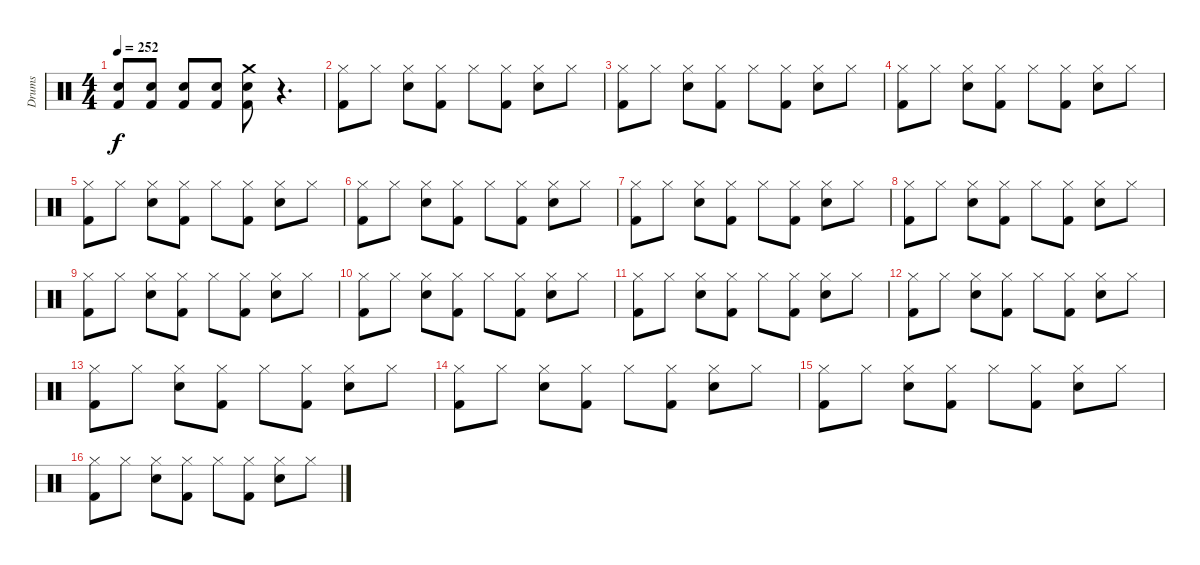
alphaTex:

\track ("Drums" "Drums") {instrument percussion}
\staff {score}
\articulation defaults
\ts (4 4)
\tempo 252
\clef neutral
\ks c
("Kick (hit) 2" "Snare (hit) 2").8{dy f} ("Kick (hit) 2" "Snare (hit) 2").8 ("Kick (hit) 2" "Snare (hit) 2").8 ("Kick (hit) 2" "Snare (hit) 2").8 ("Kick (hit) 2" "Snare (hit) 2" "Crash medium (hit)").8 r.4{d} |
("Kick (hit) 2" "Hi-Hat (closed)").8 "Hi-Hat (closed)".8 ("Snare (hit) 2" "Hi-Hat (closed)").8 ("Kick (hit) 2" "Hi-Hat (closed)").8 "Hi-Hat (closed)".8 ("Kick (hit) 2" "Hi-Hat (closed)").8 ("Snare (hit) 2" "Hi-Hat (closed)").8 "Hi-Hat (closed)".8 |
("Kick (hit) 2" "Hi-Hat (closed)").8 "Hi-Hat (closed)".8 ("Snare (hit) 2" "Hi-Hat (closed)").8 ("Kick (hit) 2" "Hi-Hat (closed)").8 "Hi-Hat (closed)".8 ("Kick (hit) 2" "Hi-Hat (closed)").8 ("Snare (hit) 2" "Hi-Hat (closed)").8 "Hi-Hat (closed)".8 |
("Kick (hit) 2" "Hi-Hat (closed)").8 "Hi-Hat (closed)".8 ("Snare (hit) 2" "Hi-Hat (closed)").8 ("Kick (hit) 2" "Hi-Hat (closed)").8 "Hi-Hat (closed)".8 ("Kick (hit) 2" "Hi-Hat (closed)").8 ("Snare (hit) 2" "Hi-Hat (closed)").8 "Hi-Hat (closed)".8 |
("Kick (hit) 2" "Hi-Hat (closed)").8 "Hi-Hat (closed)".8 ("Snare (hit) 2" "Hi-Hat (closed)").8 ("Kick (hit) 2" "Hi-Hat (closed)").8 "Hi-Hat (closed)".8 ("Kick (hit) 2" "Hi-Hat (closed)").8 ("Snare (hit) 2" "Hi-Hat (closed)").8 "Hi-Hat (closed)".8 |
("Kick (hit) 2" "Hi-Hat (closed)").8 "Hi-Hat (closed)".8 ("Snare (hit) 2" "Hi-Hat (closed)").8 ("Kick (hit) 2" "Hi-Hat (closed)").8 "Hi-Hat (closed)".8 ("Kick (hit) 2" "Hi-Hat (closed)").8 ("Snare (hit) 2" "Hi-Hat (closed)").8 "Hi-Hat (closed)".8 |
("Kick (hit) 2" "Hi-Hat (closed)").8 "Hi-Hat (closed)".8 ("Snare (hit) 2" "Hi-Hat (closed)").8 ("Kick (hit) 2" "Hi-Hat (closed)").8 "Hi-Hat (closed)".8 ("Kick (hit) 2" "Hi-Hat (closed)").8 ("Snare (hit) 2" "Hi-Hat (closed)").8 "Hi-Hat (closed)".8 |
("Kick (hit) 2" "Hi-Hat (closed)").8 "Hi-Hat (closed)".8 ("Snare (hit) 2" "Hi-Hat (closed)").8 ("Kick (hit) 2" "Hi-Hat (closed)").8 "Hi-Hat (closed)".8 ("Kick (hit) 2" "Hi-Hat (closed)").8 ("Snare (hit) 2" "Hi-Hat (closed)").8 "Hi-Hat (closed)".8 |
("Kick (hit) 2" "Hi-Hat (closed)").8 "Hi-Hat (closed)".8 ("Snare (hit) 2" "Hi-Hat (closed)").8 ("Kick (hit) 2" "Hi-Hat (closed)").8 "Hi-Hat (closed)".8 ("Kick (hit) 2" "Hi-Hat (closed)").8 ("Snare (hit) 2" "Hi-Hat (closed)").8 "Hi-Hat (closed)".8 |
("Kick (hit) 2" "Hi-Hat (closed)").8 "Hi-Hat (closed)".8 ("Snare (hit) 2" "Hi-Hat (closed)").8 ("Kick (hit) 2" "Hi-Hat (closed)").8 "Hi-Hat (closed)".8 ("Kick (hit) 2" "Hi-Hat (closed)").8 ("Snare (hit) 2" "Hi-Hat (closed)").8 "Hi-Hat (closed)".8 |
("Kick (hit) 2" "Hi-Hat (closed)").8 "Hi-Hat (closed)".8 ("Snare (hit) 2" "Hi-Hat (closed)").8 ("Kick (hit) 2" "Hi-Hat (closed)").8 "Hi-Hat (closed)".8 ("Kick (hit) 2" "Hi-Hat (closed)").8 ("Snare (hit) 2" "Hi-Hat (closed)").8 "Hi-Hat (closed)".8 |
("Kick (hit) 2" "Hi-Hat (closed)").8 "Hi-Hat (closed)".8 ("Snare (hit) 2" "Hi-Hat (closed)").8 ("Kick (hit) 2" "Hi-Hat (closed)").8 "Hi-Hat (closed)".8 ("Kick (hit) 2" "Hi-Hat (closed)").8 ("Snare (hit) 2" "Hi-Hat (closed)").8 "Hi-Hat (closed)".8 |
("Kick (hit) 2" "Hi-Hat (closed)").8 "Hi-Hat (closed)".8 ("Snare (hit) 2" "Hi-Hat (closed)").8 ("Kick (hit) 2" "Hi-Hat (closed)").8 "Hi-Hat (closed)".8 ("Kick (hit) 2" "Hi-Hat (closed)").8 ("Snare (hit) 2" "Hi-Hat (closed)").8 "Hi-Hat (closed)".8 |
("Kick (hit) 2" "Hi-Hat (closed)").8 "Hi-Hat (closed)".8 ("Snare (hit) 2" "Hi-Hat (closed)").8 ("Kick (hit) 2" "Hi-Hat (closed)").8 "Hi-Hat (closed)".8 ("Kick (hit) 2" "Hi-Hat (closed)").8 ("Snare (hit) 2" "Hi-Hat (closed)").8 "Hi-Hat (closed)".8 |
("Kick (hit) 2" "Hi-Hat (closed)").8 "Hi-Hat (closed)".8 ("Snare (hit) 2" "Hi-Hat (closed)").8 ("Kick (hit) 2" "Hi-Hat (closed)").8 "Hi-Hat (closed)".8 ("Kick (hit) 2" "Hi-Hat (closed)").8 ("Snare (hit) 2" "Hi-Hat (closed)").8 "Hi-Hat (closed)".8 |
("Kick (hit) 2" "Hi-Hat (closed)").8 "Hi-Hat (closed)".8 ("Snare (hit) 2" "Hi-Hat (closed)").8 ("Kick (hit) 2" "Hi-Hat (closed)").8 "Hi-Hat (closed)".8 ("Kick (hit) 2" "Hi-Hat (closed)").8 ("Snare (hit) 2" "Hi-Hat (closed)").8 "Hi-Hat (closed)".8
